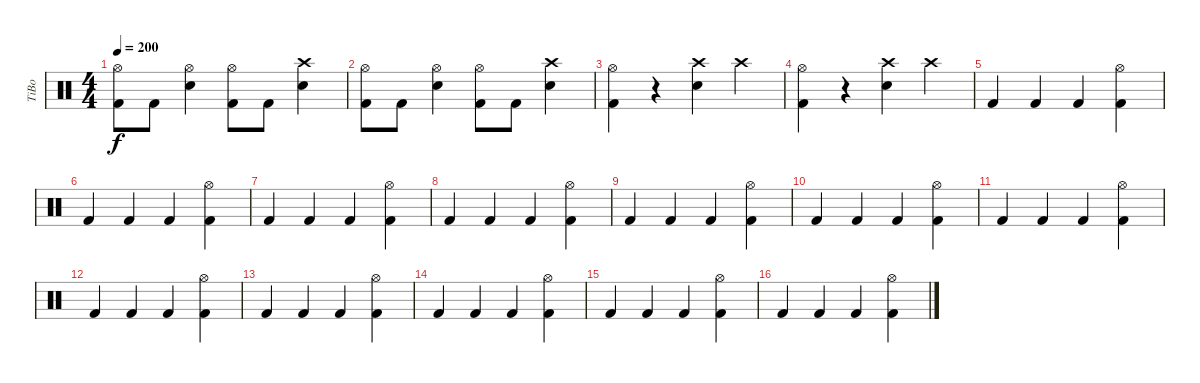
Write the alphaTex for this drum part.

\track ("TiBo" "TiBo") {instrument percussion}
\staff {score}
\articulation defaults
\ts (4 4)
\tempo 200
\clef neutral
\ks c
("Hi-Hat (open)" "Kick (hit) 2").8{dy f} "Kick (hit) 2".8 ("Hi-Hat (open)" "Snare (hit) 2").4 ("Hi-Hat (open)" "Kick (hit) 2").8 "Kick (hit) 2".8 ("Crash high (hit)" "Snare (hit) 2").4 |
("Hi-Hat (open)" "Kick (hit) 2").8 "Kick (hit) 2".8 ("Hi-Hat (open)" "Snare (hit) 2").4 ("Hi-Hat (open)" "Kick (hit) 2").8 "Kick (hit) 2".8 ("Crash high (hit)" "Snare (hit) 2").4 |
("Hi-Hat (open)" "Kick (hit) 2").4 r.4 ("Crash high (hit)" "Snare (hit) 2").4 "Crash high (hit)".4 |
("Hi-Hat (open)" "Kick (hit) 2").4 r.4 ("Crash high (hit)" "Snare (hit) 2").4 "Crash high (hit)".4 |
"Kick (hit) 2".4 "Kick (hit) 2".4 "Kick (hit) 2".4 ("Hi-Hat (open)" "Kick (hit) 2").4 |
"Kick (hit) 2".4 "Kick (hit) 2".4 "Kick (hit) 2".4 ("Hi-Hat (open)" "Kick (hit) 2").4 |
"Kick (hit) 2".4 "Kick (hit) 2".4 "Kick (hit) 2".4 ("Hi-Hat (open)" "Kick (hit) 2").4 |
"Kick (hit) 2".4 "Kick (hit) 2".4 "Kick (hit) 2".4 ("Hi-Hat (open)" "Kick (hit) 2").4 |
"Kick (hit) 2".4 "Kick (hit) 2".4 "Kick (hit) 2".4 ("Hi-Hat (open)" "Kick (hit) 2").4 |
"Kick (hit) 2".4 "Kick (hit) 2".4 "Kick (hit) 2".4 ("Hi-Hat (open)" "Kick (hit) 2").4 |
"Kick (hit) 2".4 "Kick (hit) 2".4 "Kick (hit) 2".4 ("Hi-Hat (open)" "Kick (hit) 2").4 |
"Kick (hit) 2".4 "Kick (hit) 2".4 "Kick (hit) 2".4 ("Hi-Hat (open)" "Kick (hit) 2").4 |
"Kick (hit) 2".4 "Kick (hit) 2".4 "Kick (hit) 2".4 ("Hi-Hat (open)" "Kick (hit) 2").4 |
"Kick (hit) 2".4 "Kick (hit) 2".4 "Kick (hit) 2".4 ("Hi-Hat (open)" "Kick (hit) 2").4 |
"Kick (hit) 2".4 "Kick (hit) 2".4 "Kick (hit) 2".4 ("Hi-Hat (open)" "Kick (hit) 2").4 |
"Kick (hit) 2".4 "Kick (hit) 2".4 "Kick (hit) 2".4 ("Hi-Hat (open)" "Kick (hit) 2").4
